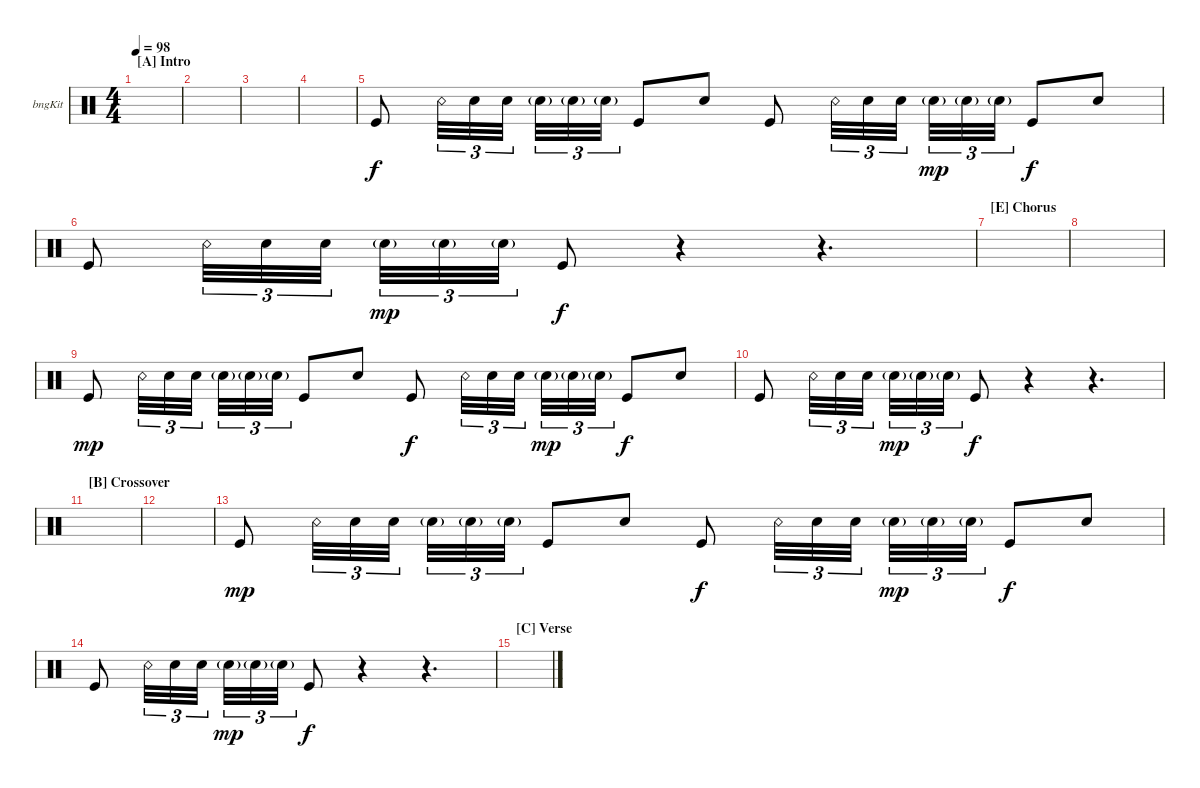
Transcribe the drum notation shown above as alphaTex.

\defaultSystemsLayout 4
\bracketExtendMode groupsimilarinstruments
\firstSystemTrackNameOrientation horizontal
\otherSystemsTrackNameOrientation horizontal
\track ("Bongos" "bngKit") {instrument percussion}
\staff {score}
\articulation defaults
\ts (4 4)
\section ("A" "Intro")
\tempo 98
\clef neutral
\scale
0.474178
\ks c
|
\scale
0.262911 |
\scale
0.262911 |
\scale
0.333333 |
\scale
0.333333 "Kick (hit)".8 "Snare (rim shot)".32{tu (3 2)} "Snare (hit) 2".32{tu (3 2)} "Snare (hit) 2".32{tu (3 2)} "Snare (hit) 2"{g}.32{tu (3 2)} "Snare (hit) 2"{g}.32{tu (3 2)} "Snare (hit) 2"{g}.32{tu (3 2)} "Kick (hit)".8 "Snare (hit) 2".8 "Kick (hit)".8{dy f} "Snare (rim shot)".32{tu (3 2)} "Snare (hit) 2".32{tu (3 2)} "Snare (hit) 2".32{tu (3 2)} "Snare (hit) 2"{g}.32{tu (3 2) dy mp} "Snare (hit) 2"{g}.32{tu (3 2)} "Snare (hit) 2"{g}.32{tu (3 2)} "Kick (hit)".8{dy f} "Snare (hit) 2".8 |
\scale
0.333333 "Kick (hit)".8 "Snare (rim shot)".32{tu (3 2)} "Snare (hit) 2".32{tu (3 2)} "Snare (hit) 2".32{tu (3 2)} "Snare (hit) 2"{g}.32{tu (3 2) dy mp} "Snare (hit) 2"{g}.32{tu (3 2)} "Snare (hit) 2"{g}.32{tu (3 2)} "Kick (hit)".8{dy f} r.4 r.4{d} |
\section ("E" "Chorus")
\scale
0.333333 |
\scale
0.333333 |
\scale
0.333333 "Kick (hit)".8{dy mp} "Snare (rim shot)".32{tu (3 2)} "Snare (hit) 2".32{tu (3 2)} "Snare (hit) 2".32{tu (3 2)} "Snare (hit) 2"{g}.32{tu (3 2)} "Snare (hit) 2"{g}.32{tu (3 2)} "Snare (hit) 2"{g}.32{tu (3 2)} "Kick (hit)".8 "Snare (hit) 2".8 "Kick (hit)".8{dy f} "Snare (rim shot)".32{tu (3 2)} "Snare (hit) 2".32{tu (3 2)} "Snare (hit) 2".32{tu (3 2)} "Snare (hit) 2"{g}.32{tu (3 2) dy mp} "Snare (hit) 2"{g}.32{tu (3 2)} "Snare (hit) 2"{g}.32{tu (3 2)} "Kick (hit)".8{dy f} "Snare (hit) 2".8 |
"Kick (hit)".8 "Snare (rim shot)".32{tu (3 2)} "Snare (hit) 2".32{tu (3 2)} "Snare (hit) 2".32{tu (3 2)} "Snare (hit) 2"{g}.32{tu (3 2) dy mp} "Snare (hit) 2"{g}.32{tu (3 2)} "Snare (hit) 2"{g}.32{tu (3 2)} "Kick (hit)".8{dy f} r.4 r.4{d} |
\section ("B" "Crossover")
|
|
"Kick (hit)".8{dy mp} "Snare (rim shot)".32{tu (3 2)} "Snare (hit) 2".32{tu (3 2)} "Snare (hit) 2".32{tu (3 2)} "Snare (hit) 2"{g}.32{tu (3 2)} "Snare (hit) 2"{g}.32{tu (3 2)} "Snare (hit) 2"{g}.32{tu (3 2)} "Kick (hit)".8 "Snare (hit) 2".8 "Kick (hit)".8{dy f} "Snare (rim shot)".32{tu (3 2)} "Snare (hit) 2".32{tu (3 2)} "Snare (hit) 2".32{tu (3 2)} "Snare (hit) 2"{g}.32{tu (3 2) dy mp} "Snare (hit) 2"{g}.32{tu (3 2)} "Snare (hit) 2"{g}.32{tu (3 2)} "Kick (hit)".8{dy f} "Snare (hit) 2".8 |
"Kick (hit)".8 "Snare (rim shot)".32{tu (3 2)} "Snare (hit) 2".32{tu (3 2)} "Snare (hit) 2".32{tu (3 2)} "Snare (hit) 2"{g}.32{tu (3 2) dy mp} "Snare (hit) 2"{g}.32{tu (3 2)} "Snare (hit) 2"{g}.32{tu (3 2)} "Kick (hit)".8{dy f} r.4 r.4{d} |
\section ("C" "Verse")
